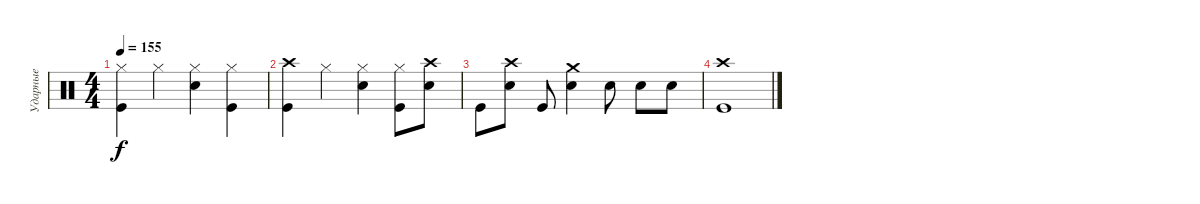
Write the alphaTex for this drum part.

\track ("Ударные" "Ударные") {instrument percussion}
\staff {score}
\articulation defaults
\ts (4 4)
\tempo 155
\clef neutral
\ks c
("Hi-Hat (closed)" "Kick (hit)").4{dy f} "Hi-Hat (closed)".4 ("Hi-Hat (closed)" "Electric Snare (hit)").4 ("Hi-Hat (closed)" "Kick (hit)").4 |
("Crash high (hit)" "Kick (hit)").4 "Hi-Hat (closed)".4 ("Hi-Hat (closed)" "Electric Snare (hit)").4 ("Hi-Hat (closed)" "Kick (hit)").8 ("Crash high (hit)" "Electric Snare (hit)").8 |
"Kick (hit)".8 ("Crash high (hit)" "Electric Snare (hit)").8 "Kick (hit)".8 ("Crash medium (hit)" "Electric Snare (hit)").4 "Electric Snare (hit)".8 "Electric Snare (hit)".8 "Electric Snare (hit)".8 |
("Crash high (hit)" "Kick (hit)").1
